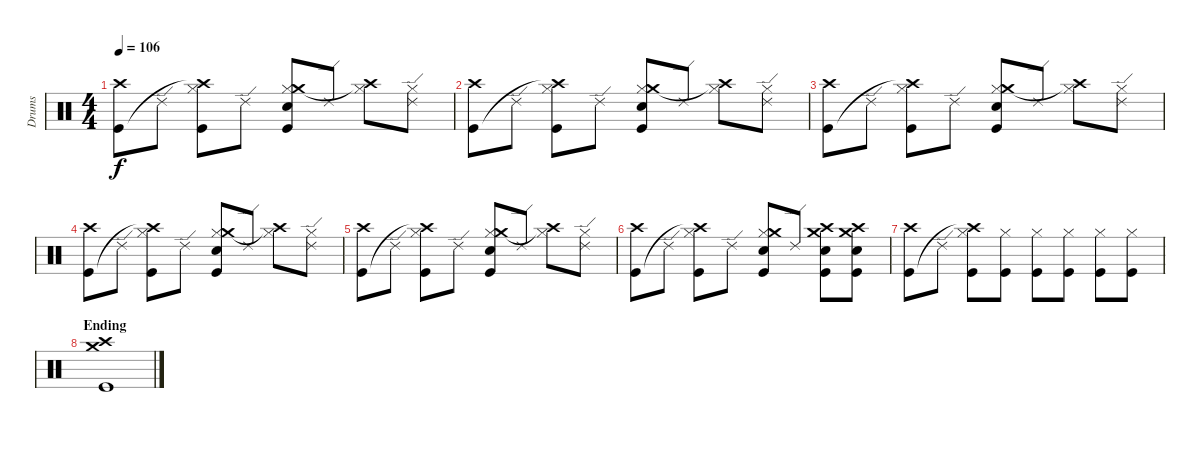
\track ("Drums" "Drums") {instrument percussion}
\staff {score}
\articulation defaults
\ts (4 4)
\tempo 106
\clef neutral
\ks c
("Crash high (hit)" "Kick (hit)").8{dy f} "Ride (edge) 2".8 ("Hi-Hat (closed)" "Crash high (hit)"{t} "Kick (hit)").8 "Ride (edge) 2".8 ("Hi-Hat (closed)" "Crash medium (hit)" "Snare (hit) 2" "Kick (hit)").8 "Ride (edge) 2".8 ("Hi-Hat (closed)" "Crash high (hit)"{t}).8 ("Hi-Hat (closed)" "Ride (edge) 2").8 |
("Crash high (hit)" "Kick (hit)").8 "Ride (edge) 2".8 ("Hi-Hat (closed)" "Crash high (hit)"{t} "Kick (hit)").8 "Ride (edge) 2".8 ("Hi-Hat (closed)" "Crash medium (hit)" "Snare (hit) 2" "Kick (hit)").8 "Ride (edge) 2".8 ("Hi-Hat (closed)" "Crash high (hit)"{t}).8 ("Hi-Hat (closed)" "Ride (edge) 2").8 |
("Crash high (hit)" "Kick (hit)").8 "Ride (edge) 2".8 ("Hi-Hat (closed)" "Crash high (hit)"{t} "Kick (hit)").8 "Ride (edge) 2".8 ("Hi-Hat (closed)" "Crash medium (hit)" "Snare (hit) 2" "Kick (hit)").8 "Ride (edge) 2".8 ("Hi-Hat (closed)" "Crash high (hit)"{t}).8 ("Hi-Hat (closed)" "Ride (edge) 2").8 |
("Crash high (hit)" "Kick (hit)").8 "Ride (edge) 2".8 ("Hi-Hat (closed)" "Crash high (hit)"{t} "Kick (hit)").8 "Ride (edge) 2".8 ("Hi-Hat (closed)" "Crash medium (hit)" "Snare (hit) 2" "Kick (hit)").8 "Ride (edge) 2".8 ("Hi-Hat (closed)" "Crash high (hit)"{t}).8 ("Hi-Hat (closed)" "Ride (edge) 2").8 |
("Crash high (hit)" "Kick (hit)").8 "Ride (edge) 2".8 ("Hi-Hat (closed)" "Crash high (hit)"{t} "Kick (hit)").8 "Ride (edge) 2".8 ("Hi-Hat (closed)" "Crash medium (hit)" "Snare (hit) 2" "Kick (hit)").8 "Ride (edge) 2".8 ("Hi-Hat (closed)" "Crash high (hit)"{t}).8 ("Hi-Hat (closed)" "Ride (edge) 2").8 |
("Crash high (hit)" "Kick (hit)").8 "Ride (edge) 2".8 ("Hi-Hat (closed)" "Crash high (hit)"{t} "Kick (hit)").8 "Ride (edge) 2".8 ("Hi-Hat (closed)" "Crash medium (hit)" "Snare (hit) 2" "Kick (hit)").8 "Ride (edge) 2".8 ("Crash medium (hit)" "Crash high (hit)" "Snare (hit) 2" "Kick (hit)").8 ("Crash medium (hit)" "Crash high (hit)" "Snare (hit) 2" "Kick (hit)").8 |
("Crash high (hit)" "Kick (hit)").8 "Ride (edge) 2".8 ("Hi-Hat (closed)" "Crash high (hit)"{t} "Kick (hit)").8 ("Hi-Hat (closed)" "Kick (hit)").8 ("Hi-Hat (closed)" "Kick (hit)").8 ("Hi-Hat (closed)" "Kick (hit)").8 ("Hi-Hat (closed)" "Kick (hit)").8 ("Hi-Hat (closed)" "Kick (hit)").8 |
\section ("" "Ending")
("Crash medium (hit)" "Crash high (hit)" "Kick (hit)").1
